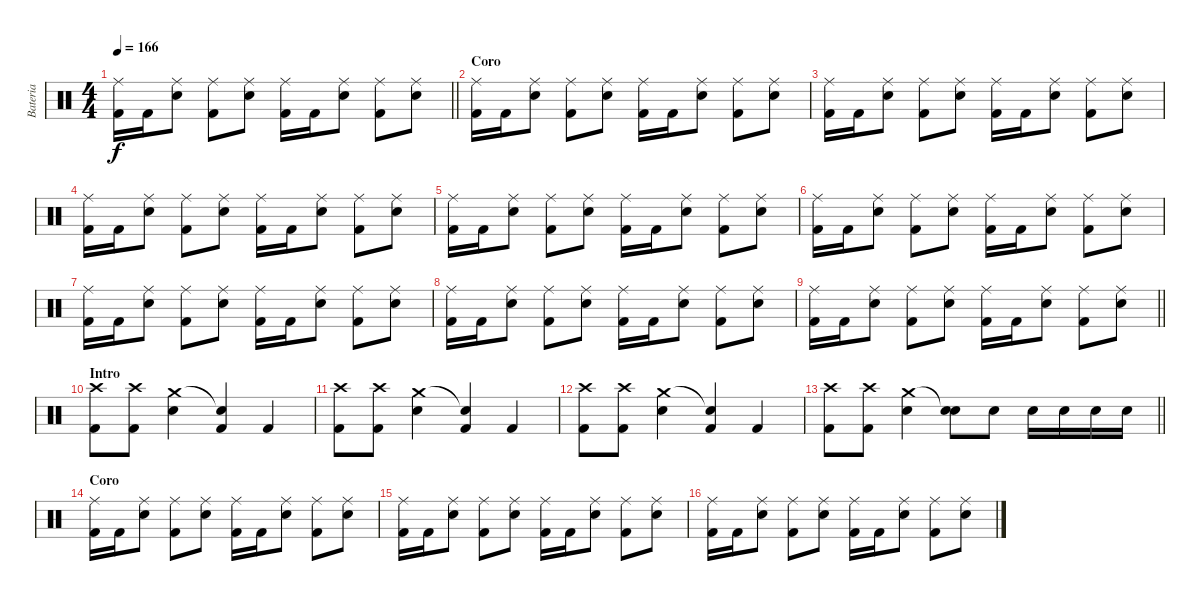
\track ("Bateria" "Bateria") {instrument percussion}
\staff {score}
\articulation defaults
\ts (4 4)
\tempo 166
\clef neutral
\barLineRight lightlight
\ks c
("Ride (middle)" "Kick (hit) 2").16{dy f} "Kick (hit) 2".16 ("Ride (middle)" "Electric Snare (hit)").8 ("Ride (middle)" "Kick (hit) 2").8 ("Ride (middle)" "Electric Snare (hit)").8 ("Ride (middle)" "Kick (hit) 2").16 "Kick (hit) 2".16 ("Ride (middle)" "Electric Snare (hit)").8 ("Ride (middle)" "Kick (hit) 2").8 ("Ride (middle)" "Electric Snare (hit)").8 |
\section ("" "Coro")
("Ride (middle)" "Kick (hit) 2").16 "Kick (hit) 2".16 ("Ride (middle)" "Electric Snare (hit)").8 ("Ride (middle)" "Kick (hit) 2").8 ("Ride (middle)" "Electric Snare (hit)").8 ("Ride (middle)" "Kick (hit) 2").16 "Kick (hit) 2".16 ("Ride (middle)" "Electric Snare (hit)").8 ("Ride (middle)" "Kick (hit) 2").8 ("Ride (middle)" "Electric Snare (hit)").8 |
("Ride (middle)" "Kick (hit) 2").16 "Kick (hit) 2".16 ("Ride (middle)" "Electric Snare (hit)").8 ("Ride (middle)" "Kick (hit) 2").8 ("Ride (middle)" "Electric Snare (hit)").8 ("Ride (middle)" "Kick (hit) 2").16 "Kick (hit) 2".16 ("Ride (middle)" "Electric Snare (hit)").8 ("Ride (middle)" "Kick (hit) 2").8 ("Ride (middle)" "Electric Snare (hit)").8 |
("Ride (middle)" "Kick (hit) 2").16 "Kick (hit) 2".16 ("Ride (middle)" "Electric Snare (hit)").8 ("Ride (middle)" "Kick (hit) 2").8 ("Ride (middle)" "Electric Snare (hit)").8 ("Ride (middle)" "Kick (hit) 2").16 "Kick (hit) 2".16 ("Ride (middle)" "Electric Snare (hit)").8 ("Ride (middle)" "Kick (hit) 2").8 ("Ride (middle)" "Electric Snare (hit)").8 |
("Ride (middle)" "Kick (hit) 2").16 "Kick (hit) 2".16 ("Ride (middle)" "Electric Snare (hit)").8 ("Ride (middle)" "Kick (hit) 2").8 ("Ride (middle)" "Electric Snare (hit)").8 ("Ride (middle)" "Kick (hit) 2").16 "Kick (hit) 2".16 ("Ride (middle)" "Electric Snare (hit)").8 ("Ride (middle)" "Kick (hit) 2").8 ("Ride (middle)" "Electric Snare (hit)").8 |
("Ride (middle)" "Kick (hit) 2").16 "Kick (hit) 2".16 ("Ride (middle)" "Electric Snare (hit)").8 ("Ride (middle)" "Kick (hit) 2").8 ("Ride (middle)" "Electric Snare (hit)").8 ("Ride (middle)" "Kick (hit) 2").16 "Kick (hit) 2".16 ("Ride (middle)" "Electric Snare (hit)").8 ("Ride (middle)" "Kick (hit) 2").8 ("Ride (middle)" "Electric Snare (hit)").8 |
("Ride (middle)" "Kick (hit) 2").16 "Kick (hit) 2".16 ("Ride (middle)" "Electric Snare (hit)").8 ("Ride (middle)" "Kick (hit) 2").8 ("Ride (middle)" "Electric Snare (hit)").8 ("Ride (middle)" "Kick (hit) 2").16 "Kick (hit) 2".16 ("Ride (middle)" "Electric Snare (hit)").8 ("Ride (middle)" "Kick (hit) 2").8 ("Ride (middle)" "Electric Snare (hit)").8 |
("Ride (middle)" "Kick (hit) 2").16 "Kick (hit) 2".16 ("Ride (middle)" "Electric Snare (hit)").8 ("Ride (middle)" "Kick (hit) 2").8 ("Ride (middle)" "Electric Snare (hit)").8 ("Ride (middle)" "Kick (hit) 2").16 "Kick (hit) 2".16 ("Ride (middle)" "Electric Snare (hit)").8 ("Ride (middle)" "Kick (hit) 2").8 ("Ride (middle)" "Electric Snare (hit)").8 |
\barLineRight lightlight
("Ride (middle)" "Kick (hit) 2").16 "Kick (hit) 2".16 ("Ride (middle)" "Electric Snare (hit)").8 ("Ride (middle)" "Kick (hit) 2").8 ("Ride (middle)" "Electric Snare (hit)").8 ("Ride (middle)" "Kick (hit) 2").16 "Kick (hit) 2".16 ("Ride (middle)" "Electric Snare (hit)").8 ("Ride (middle)" "Kick (hit) 2").8 ("Ride (middle)" "Electric Snare (hit)").8 |
\section ("" "Intro")
("Crash high (hit)" "Kick (hit) 2").8 ("Crash high (hit)" "Kick (hit) 2").8 ("Crash medium (hit)" "Electric Snare (hit)").4 ("Snare (hit)"{t} "Kick (hit) 2").4 "Kick (hit) 2".4 |
("Crash high (hit)" "Kick (hit) 2").8 ("Crash high (hit)" "Kick (hit) 2").8 ("Crash medium (hit)" "Electric Snare (hit)").4 ("Snare (hit)"{t} "Kick (hit) 2").4 "Kick (hit) 2".4 |
("Crash high (hit)" "Kick (hit) 2").8 ("Crash high (hit)" "Kick (hit) 2").8 ("Crash medium (hit)" "Electric Snare (hit)").4 ("Snare (hit)"{t} "Kick (hit) 2").4 "Kick (hit) 2".4 |
\barLineRight lightlight
("Crash high (hit)" "Kick (hit) 2").8 ("Crash high (hit)" "Kick (hit) 2").8 ("Crash medium (hit)" "Electric Snare (hit)").4 ("Snare (hit)"{t} "Electric Snare (hit)").8 "Electric Snare (hit)".8 "Electric Snare (hit)".16 "Electric Snare (hit)".16 "Electric Snare (hit)".16 "Electric Snare (hit)".16 |
\section ("" "Coro")
("Ride (middle)" "Kick (hit) 2").16 "Kick (hit) 2".16 ("Ride (middle)" "Electric Snare (hit)").8 ("Ride (middle)" "Kick (hit) 2").8 ("Ride (middle)" "Electric Snare (hit)").8 ("Ride (middle)" "Kick (hit) 2").16 "Kick (hit) 2".16 ("Ride (middle)" "Electric Snare (hit)").8 ("Ride (middle)" "Kick (hit) 2").8 ("Ride (middle)" "Electric Snare (hit)").8 |
("Ride (middle)" "Kick (hit) 2").16 "Kick (hit) 2".16 ("Ride (middle)" "Electric Snare (hit)").8 ("Ride (middle)" "Kick (hit) 2").8 ("Ride (middle)" "Electric Snare (hit)").8 ("Ride (middle)" "Kick (hit) 2").16 "Kick (hit) 2".16 ("Ride (middle)" "Electric Snare (hit)").8 ("Ride (middle)" "Kick (hit) 2").8 ("Ride (middle)" "Electric Snare (hit)").8 |
("Ride (middle)" "Kick (hit) 2").16 "Kick (hit) 2".16 ("Ride (middle)" "Electric Snare (hit)").8 ("Ride (middle)" "Kick (hit) 2").8 ("Ride (middle)" "Electric Snare (hit)").8 ("Ride (middle)" "Kick (hit) 2").16 "Kick (hit) 2".16 ("Ride (middle)" "Electric Snare (hit)").8 ("Ride (middle)" "Kick (hit) 2").8 ("Ride (middle)" "Electric Snare (hit)").8
